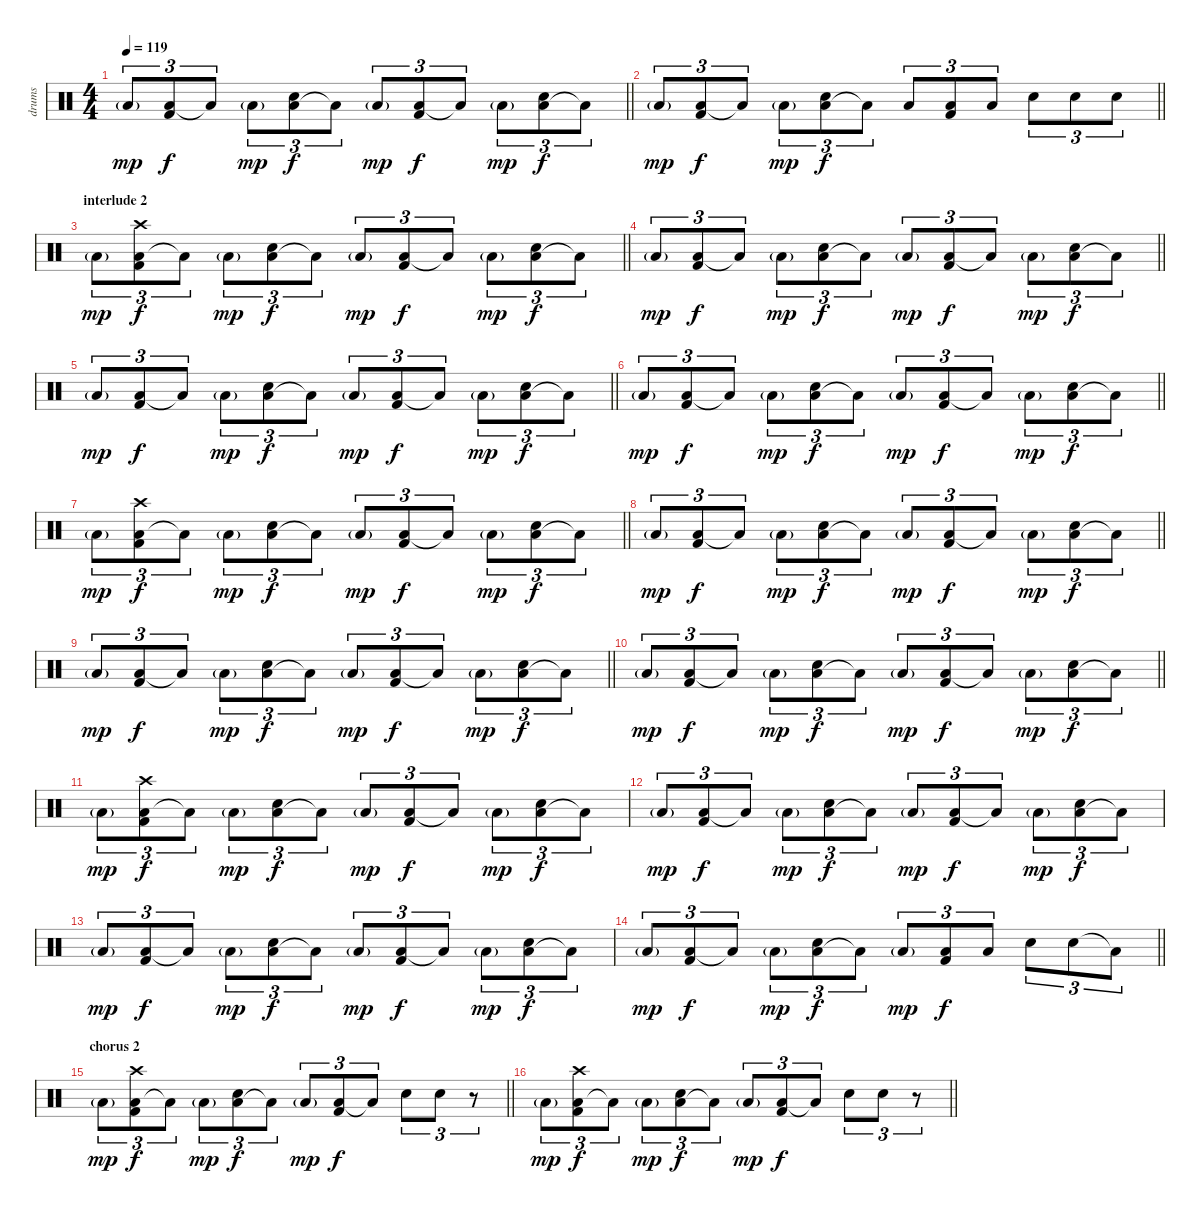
\track ("drums" "drums") {instrument percussion}
\staff {score}
\articulation defaults
\ts (4 4)
\tempo 119
\clef neutral
\barLineRight lightlight
\ks c "Low Floor Tom (hit)"{g}.8{tu (3 2) dy mp}
("Low Floor Tom (hit)" "Kick (hit) 2").8{tu (3 2) dy f} "Low Floor Tom (hit)"{t}.8{tu (3 2)} "Low Floor Tom (hit)"{g}.8{tu (3 2) dy mp} ("Low Floor Tom (hit)" "Electric Snare (hit)").8{tu (3 2) dy f} "Low Floor Tom (hit)"{t}.8{tu (3 2)} "Low Floor Tom (hit)"{g}.8{tu (3 2) dy mp} ("Low Floor Tom (hit)" "Kick (hit) 2").8{tu (3 2) dy f} "Low Floor Tom (hit)"{t}.8{tu (3 2)} "Low Floor Tom (hit)"{g}.8{tu (3 2) dy mp} ("Low Floor Tom (hit)" "Electric Snare (hit)").8{tu (3 2) dy f} "Low Floor Tom (hit)"{t}.8{tu (3 2)} |
\barLineRight lightlight "Low Floor Tom (hit)"{g}.8{tu (3 2) dy mp}
("Low Floor Tom (hit)" "Kick (hit) 2").8{tu (3 2) dy f} "Low Floor Tom (hit)"{t}.8{tu (3 2)} "Low Floor Tom (hit)"{g}.8{tu (3 2) dy mp} ("Low Floor Tom (hit)" "Electric Snare (hit)").8{tu (3 2) dy f} "Low Floor Tom (hit)"{t}.8{tu (3 2)} "Low Floor Tom (hit)".8{tu (3 2)} ("Low Floor Tom (hit)" "Kick (hit) 2").8{tu (3 2)} "Low Floor Tom (hit)".8{tu (3 2)} "Electric Snare (hit)".8{tu (3 2)} "Electric Snare (hit)".8{tu (3 2)} "Electric Snare (hit)".8{tu (3 2)} |
\section ("" "interlude 2")
\barLineRight lightlight "Low Floor Tom (hit)"{g}.8{tu (3 2) dy mp}
("Low Floor Tom (hit)" "Kick (hit) 2" "Crash high (hit)").8{tu (3 2) dy f} "Low Floor Tom (hit)"{t}.8{tu (3 2)} "Low Floor Tom (hit)"{g}.8{tu (3 2) dy mp} ("Low Floor Tom (hit)" "Electric Snare (hit)").8{tu (3 2) dy f} "Low Floor Tom (hit)"{t}.8{tu (3 2)} "Low Floor Tom (hit)"{g}.8{tu (3 2) dy mp} ("Low Floor Tom (hit)" "Kick (hit) 2").8{tu (3 2) dy f} "Low Floor Tom (hit)"{t}.8{tu (3 2)} "Low Floor Tom (hit)"{g}.8{tu (3 2) dy mp} ("Low Floor Tom (hit)" "Electric Snare (hit)").8{tu (3 2) dy f} "Low Floor Tom (hit)"{t}.8{tu (3 2)} |
\barLineRight lightlight "Low Floor Tom (hit)"{g}.8{tu (3 2) dy mp}
("Low Floor Tom (hit)" "Kick (hit) 2").8{tu (3 2) dy f} "Low Floor Tom (hit)"{t}.8{tu (3 2)} "Low Floor Tom (hit)"{g}.8{tu (3 2) dy mp} ("Low Floor Tom (hit)" "Electric Snare (hit)").8{tu (3 2) dy f} "Low Floor Tom (hit)"{t}.8{tu (3 2)} "Low Floor Tom (hit)"{g}.8{tu (3 2) dy mp} ("Low Floor Tom (hit)" "Kick (hit) 2").8{tu (3 2) dy f} "Low Floor Tom (hit)"{t}.8{tu (3 2)} "Low Floor Tom (hit)"{g}.8{tu (3 2) dy mp} ("Low Floor Tom (hit)" "Electric Snare (hit)").8{tu (3 2) dy f} "Low Floor Tom (hit)"{t}.8{tu (3 2)} |
\barLineRight lightlight "Low Floor Tom (hit)"{g}.8{tu (3 2) dy mp}
("Low Floor Tom (hit)" "Kick (hit) 2").8{tu (3 2) dy f} "Low Floor Tom (hit)"{t}.8{tu (3 2)} "Low Floor Tom (hit)"{g}.8{tu (3 2) dy mp} ("Low Floor Tom (hit)" "Electric Snare (hit)").8{tu (3 2) dy f} "Low Floor Tom (hit)"{t}.8{tu (3 2)} "Low Floor Tom (hit)"{g}.8{tu (3 2) dy mp} ("Low Floor Tom (hit)" "Kick (hit) 2").8{tu (3 2) dy f} "Low Floor Tom (hit)"{t}.8{tu (3 2)} "Low Floor Tom (hit)"{g}.8{tu (3 2) dy mp} ("Low Floor Tom (hit)" "Electric Snare (hit)").8{tu (3 2) dy f} "Low Floor Tom (hit)"{t}.8{tu (3 2)} |
\barLineRight lightlight "Low Floor Tom (hit)"{g}.8{tu (3 2) dy mp}
("Low Floor Tom (hit)" "Kick (hit) 2").8{tu (3 2) dy f} "Low Floor Tom (hit)"{t}.8{tu (3 2)} "Low Floor Tom (hit)"{g}.8{tu (3 2) dy mp} ("Low Floor Tom (hit)" "Electric Snare (hit)").8{tu (3 2) dy f} "Low Floor Tom (hit)"{t}.8{tu (3 2)} "Low Floor Tom (hit)"{g}.8{tu (3 2) dy mp} ("Low Floor Tom (hit)" "Kick (hit) 2").8{tu (3 2) dy f} "Low Floor Tom (hit)"{t}.8{tu (3 2)} "Low Floor Tom (hit)"{g}.8{tu (3 2) dy mp} ("Low Floor Tom (hit)" "Electric Snare (hit)").8{tu (3 2) dy f} "Low Floor Tom (hit)"{t}.8{tu (3 2)} |
\barLineRight lightlight "Low Floor Tom (hit)"{g}.8{tu (3 2) dy mp}
("Low Floor Tom (hit)" "Kick (hit) 2" "Crash high (hit)").8{tu (3 2) dy f} "Low Floor Tom (hit)"{t}.8{tu (3 2)} "Low Floor Tom (hit)"{g}.8{tu (3 2) dy mp} ("Low Floor Tom (hit)" "Electric Snare (hit)").8{tu (3 2) dy f} "Low Floor Tom (hit)"{t}.8{tu (3 2)} "Low Floor Tom (hit)"{g}.8{tu (3 2) dy mp} ("Low Floor Tom (hit)" "Kick (hit) 2").8{tu (3 2) dy f} "Low Floor Tom (hit)"{t}.8{tu (3 2)} "Low Floor Tom (hit)"{g}.8{tu (3 2) dy mp} ("Low Floor Tom (hit)" "Electric Snare (hit)").8{tu (3 2) dy f} "Low Floor Tom (hit)"{t}.8{tu (3 2)} |
\barLineRight lightlight "Low Floor Tom (hit)"{g}.8{tu (3 2) dy mp}
("Low Floor Tom (hit)" "Kick (hit) 2").8{tu (3 2) dy f} "Low Floor Tom (hit)"{t}.8{tu (3 2)} "Low Floor Tom (hit)"{g}.8{tu (3 2) dy mp} ("Low Floor Tom (hit)" "Electric Snare (hit)").8{tu (3 2) dy f} "Low Floor Tom (hit)"{t}.8{tu (3 2)} "Low Floor Tom (hit)"{g}.8{tu (3 2) dy mp} ("Low Floor Tom (hit)" "Kick (hit) 2").8{tu (3 2) dy f} "Low Floor Tom (hit)"{t}.8{tu (3 2)} "Low Floor Tom (hit)"{g}.8{tu (3 2) dy mp} ("Low Floor Tom (hit)" "Electric Snare (hit)").8{tu (3 2) dy f} "Low Floor Tom (hit)"{t}.8{tu (3 2)} |
\barLineRight lightlight "Low Floor Tom (hit)"{g}.8{tu (3 2) dy mp}
("Low Floor Tom (hit)" "Kick (hit) 2").8{tu (3 2) dy f} "Low Floor Tom (hit)"{t}.8{tu (3 2)} "Low Floor Tom (hit)"{g}.8{tu (3 2) dy mp} ("Low Floor Tom (hit)" "Electric Snare (hit)").8{tu (3 2) dy f} "Low Floor Tom (hit)"{t}.8{tu (3 2)} "Low Floor Tom (hit)"{g}.8{tu (3 2) dy mp} ("Low Floor Tom (hit)" "Kick (hit) 2").8{tu (3 2) dy f} "Low Floor Tom (hit)"{t}.8{tu (3 2)} "Low Floor Tom (hit)"{g}.8{tu (3 2) dy mp} ("Low Floor Tom (hit)" "Electric Snare (hit)").8{tu (3 2) dy f} "Low Floor Tom (hit)"{t}.8{tu (3 2)} |
\barLineRight lightlight "Low Floor Tom (hit)"{g}.8{tu (3 2) dy mp}
("Low Floor Tom (hit)" "Kick (hit) 2").8{tu (3 2) dy f} "Low Floor Tom (hit)"{t}.8{tu (3 2)} "Low Floor Tom (hit)"{g}.8{tu (3 2) dy mp} ("Low Floor Tom (hit)" "Electric Snare (hit)").8{tu (3 2) dy f} "Low Floor Tom (hit)"{t}.8{tu (3 2)} "Low Floor Tom (hit)"{g}.8{tu (3 2) dy mp} ("Low Floor Tom (hit)" "Kick (hit) 2").8{tu (3 2) dy f} "Low Floor Tom (hit)"{t}.8{tu (3 2)} "Low Floor Tom (hit)"{g}.8{tu (3 2) dy mp} ("Low Floor Tom (hit)" "Electric Snare (hit)").8{tu (3 2) dy f} "Low Floor Tom (hit)"{t}.8{tu (3 2)} |
"Low Floor Tom (hit)"{g}.8{tu (3 2) dy mp} ("Low Floor Tom (hit)" "Kick (hit) 2" "Crash high (hit)").8{tu (3 2) dy f} "Low Floor Tom (hit)"{t}.8{tu (3 2)} "Low Floor Tom (hit)"{g}.8{tu (3 2) dy mp} ("Low Floor Tom (hit)" "Electric Snare (hit)").8{tu (3 2) dy f} "Low Floor Tom (hit)"{t}.8{tu (3 2)} "Low Floor Tom (hit)"{g}.8{tu (3 2) dy mp} ("Low Floor Tom (hit)" "Kick (hit) 2").8{tu (3 2) dy f} "Low Floor Tom (hit)"{t}.8{tu (3 2)} "Low Floor Tom (hit)"{g}.8{tu (3 2) dy mp} ("Low Floor Tom (hit)" "Electric Snare (hit)").8{tu (3 2) dy f} "Low Floor Tom (hit)"{t}.8{tu (3 2)} |
"Low Floor Tom (hit)"{g}.8{tu (3 2) dy mp} ("Low Floor Tom (hit)" "Kick (hit) 2").8{tu (3 2) dy f} "Low Floor Tom (hit)"{t}.8{tu (3 2)} "Low Floor Tom (hit)"{g}.8{tu (3 2) dy mp} ("Low Floor Tom (hit)" "Electric Snare (hit)").8{tu (3 2) dy f} "Low Floor Tom (hit)"{t}.8{tu (3 2)} "Low Floor Tom (hit)"{g}.8{tu (3 2) dy mp} ("Low Floor Tom (hit)" "Kick (hit) 2").8{tu (3 2) dy f} "Low Floor Tom (hit)"{t}.8{tu (3 2)} "Low Floor Tom (hit)"{g}.8{tu (3 2) dy mp} ("Low Floor Tom (hit)" "Electric Snare (hit)").8{tu (3 2) dy f} "Low Floor Tom (hit)"{t}.8{tu (3 2)} |
"Low Floor Tom (hit)"{g}.8{tu (3 2) dy mp} ("Low Floor Tom (hit)" "Kick (hit) 2").8{tu (3 2) dy f} "Low Floor Tom (hit)"{t}.8{tu (3 2)} "Low Floor Tom (hit)"{g}.8{tu (3 2) dy mp} ("Low Floor Tom (hit)" "Electric Snare (hit)").8{tu (3 2) dy f} "Low Floor Tom (hit)"{t}.8{tu (3 2)} "Low Floor Tom (hit)"{g}.8{tu (3 2) dy mp} ("Low Floor Tom (hit)" "Kick (hit) 2").8{tu (3 2) dy f} "Low Floor Tom (hit)"{t}.8{tu (3 2)} "Low Floor Tom (hit)"{g}.8{tu (3 2) dy mp} ("Low Floor Tom (hit)" "Electric Snare (hit)").8{tu (3 2) dy f} "Low Floor Tom (hit)"{t}.8{tu (3 2)} |
\barLineRight lightlight "Low Floor Tom (hit)"{g}.8{tu (3 2) dy mp}
("Low Floor Tom (hit)" "Kick (hit) 2").8{tu (3 2) dy f} "Low Floor Tom (hit)"{t}.8{tu (3 2)} "Low Floor Tom (hit)"{g}.8{tu (3 2) dy mp} ("Low Floor Tom (hit)" "Electric Snare (hit)").8{tu (3 2) dy f} "Low Floor Tom (hit)"{t}.8{tu (3 2)} "Low Floor Tom (hit)"{g}.8{tu (3 2) dy mp} ("Low Floor Tom (hit)" "Kick (hit) 2").8{tu (3 2) dy f} "Low Floor Tom (hit)".8{tu (3 2)} "Electric Snare (hit)".8{tu (3 2)} "Electric Snare (hit)".8{tu (3 2)} "Low Floor Tom (hit)"{t}.8{tu (3 2)} |
\section ("" "chorus 2")
\barLineRight lightlight "Low Floor Tom (hit)"{g}.8{tu (3 2) dy mp}
("Low Floor Tom (hit)" "Kick (hit) 2" "Crash high (hit)").8{tu (3 2) dy f} "Low Floor Tom (hit)"{t}.8{tu (3 2)} "Low Floor Tom (hit)"{g}.8{tu (3 2) dy mp} ("Low Floor Tom (hit)" "Electric Snare (hit)").8{tu (3 2) dy f} "Low Floor Tom (hit)"{t}.8{tu (3 2)} "Low Floor Tom (hit)"{g}.8{tu (3 2) dy mp} ("Low Floor Tom (hit)" "Kick (hit) 2").8{tu (3 2) dy f} "Low Floor Tom (hit)"{t}.8{tu (3 2)} "Electric Snare (hit)".8{tu (3 2)} "Electric Snare (hit)".8{tu (3 2)} r.8{tu (3 2)} |
\barLineRight lightlight "Low Floor Tom (hit)"{g}.8{tu (3 2) dy mp}
("Low Floor Tom (hit)" "Kick (hit) 2" "Crash high (hit)").8{tu (3 2) dy f} "Low Floor Tom (hit)"{t}.8{tu (3 2)} "Low Floor Tom (hit)"{g}.8{tu (3 2) dy mp} ("Low Floor Tom (hit)" "Electric Snare (hit)").8{tu (3 2) dy f} "Low Floor Tom (hit)"{t}.8{tu (3 2)} "Low Floor Tom (hit)"{g}.8{tu (3 2) dy mp} ("Low Floor Tom (hit)" "Kick (hit) 2").8{tu (3 2) dy f} "Low Floor Tom (hit)"{t}.8{tu (3 2)} "Electric Snare (hit)".8{tu (3 2)} "Electric Snare (hit)".8{tu (3 2)} r.8{tu (3 2)}
